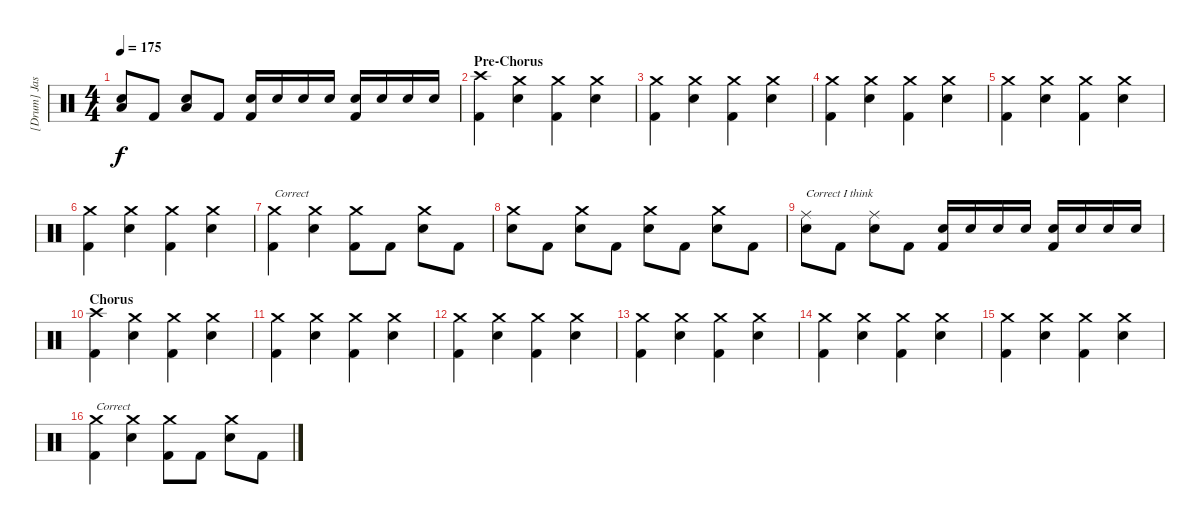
\track ("[Drum] Jason \"Shakes\" West" "[Drum] Jas") {instrument percussion}
\staff {score}
\articulation defaults
\ts (4 4)
\tempo 175
\clef neutral
\ks c
("Low Floor Tom (hit)" "Electric Snare (hit)").8{dy f} "Kick (hit) 2".8 ("Low Floor Tom (hit)" "Electric Snare (hit)").8 "Kick (hit) 2".8 ("Electric Snare (hit)" "Kick (hit) 2").16 "Electric Snare (hit)".16 "Electric Snare (hit)".16 "Electric Snare (hit)".16 ("Electric Snare (hit)" "Kick (hit) 2").16 "Electric Snare (hit)".16 "Electric Snare (hit)".16 "Electric Snare (hit)".16 |
\section ("" "Pre-Chorus")
("Crash high (hit)" "Kick (hit) 2").4 ("Crash medium (hit)" "Electric Snare (hit)").4 ("Crash medium (hit)" "Kick (hit) 2").4 ("Crash medium (hit)" "Electric Snare (hit)").4 |
("Crash medium (hit)" "Kick (hit) 2").4 ("Crash medium (hit)" "Electric Snare (hit)").4 ("Crash medium (hit)" "Kick (hit) 2").4 ("Crash medium (hit)" "Electric Snare (hit)").4 |
("Crash medium (hit)" "Kick (hit) 2").4 ("Crash medium (hit)" "Electric Snare (hit)").4 ("Crash medium (hit)" "Kick (hit) 2").4 ("Crash medium (hit)" "Electric Snare (hit)").4 |
("Crash medium (hit)" "Kick (hit) 2").4 ("Crash medium (hit)" "Electric Snare (hit)").4 ("Crash medium (hit)" "Kick (hit) 2").4 ("Crash medium (hit)" "Electric Snare (hit)").4 |
("Crash medium (hit)" "Kick (hit) 2").4 ("Crash medium (hit)" "Electric Snare (hit)").4 ("Crash medium (hit)" "Kick (hit) 2").4 ("Crash medium (hit)" "Electric Snare (hit)").4 |
("Crash medium (hit)" "Kick (hit) 2").4{txt "Correct"} ("Electric Snare (hit)" "Crash medium (hit)").4 ("Kick (hit) 2" "Crash medium (hit)").8 "Kick (hit) 2".8 ("Electric Snare (hit)" "Crash medium (hit)").8 "Kick (hit) 2".8 |
("Crash medium (hit)" "Electric Snare (hit)").8 "Kick (hit) 2".8 ("Crash medium (hit)" "Electric Snare (hit)").8 "Kick (hit) 2".8 ("Crash medium (hit)" "Electric Snare (hit)").8 "Kick (hit) 2".8 ("Crash medium (hit)" "Electric Snare (hit)").8 "Kick (hit) 2".8 |
("Ride (middle)" "Electric Snare (hit)").8{txt "Correct I think"} "Kick (hit) 2".8 ("Ride (middle)" "Electric Snare (hit)").8 "Kick (hit) 2".8 ("Electric Snare (hit)" "Kick (hit) 2").16 "Electric Snare (hit)".16 "Electric Snare (hit)".16 "Electric Snare (hit)".16 ("Electric Snare (hit)" "Kick (hit) 2").16 "Electric Snare (hit)".16 "Electric Snare (hit)".16 "Electric Snare (hit)".16 |
\section ("" "Chorus")
("Crash high (hit)" "Kick (hit) 2").4 ("Crash medium (hit)" "Electric Snare (hit)").4 ("Crash medium (hit)" "Kick (hit) 2").4 ("Crash medium (hit)" "Electric Snare (hit)").4 |
("Crash medium (hit)" "Kick (hit) 2").4 ("Crash medium (hit)" "Electric Snare (hit)").4 ("Crash medium (hit)" "Kick (hit) 2").4 ("Crash medium (hit)" "Electric Snare (hit)").4 |
("Crash medium (hit)" "Kick (hit) 2").4 ("Crash medium (hit)" "Electric Snare (hit)").4 ("Crash medium (hit)" "Kick (hit) 2").4 ("Crash medium (hit)" "Electric Snare (hit)").4 |
("Crash medium (hit)" "Kick (hit) 2").4 ("Crash medium (hit)" "Electric Snare (hit)").4 ("Crash medium (hit)" "Kick (hit) 2").4 ("Crash medium (hit)" "Electric Snare (hit)").4 |
("Crash medium (hit)" "Kick (hit) 2").4 ("Crash medium (hit)" "Electric Snare (hit)").4 ("Crash medium (hit)" "Kick (hit) 2").4 ("Crash medium (hit)" "Electric Snare (hit)").4 |
("Crash medium (hit)" "Kick (hit) 2").4 ("Crash medium (hit)" "Electric Snare (hit)").4 ("Crash medium (hit)" "Kick (hit) 2").4 ("Crash medium (hit)" "Electric Snare (hit)").4 |
("Crash medium (hit)" "Kick (hit) 2").4{txt "Correct"} ("Electric Snare (hit)" "Crash medium (hit)").4 ("Kick (hit) 2" "Crash medium (hit)").8 "Kick (hit) 2".8 ("Electric Snare (hit)" "Crash medium (hit)").8 "Kick (hit) 2".8
